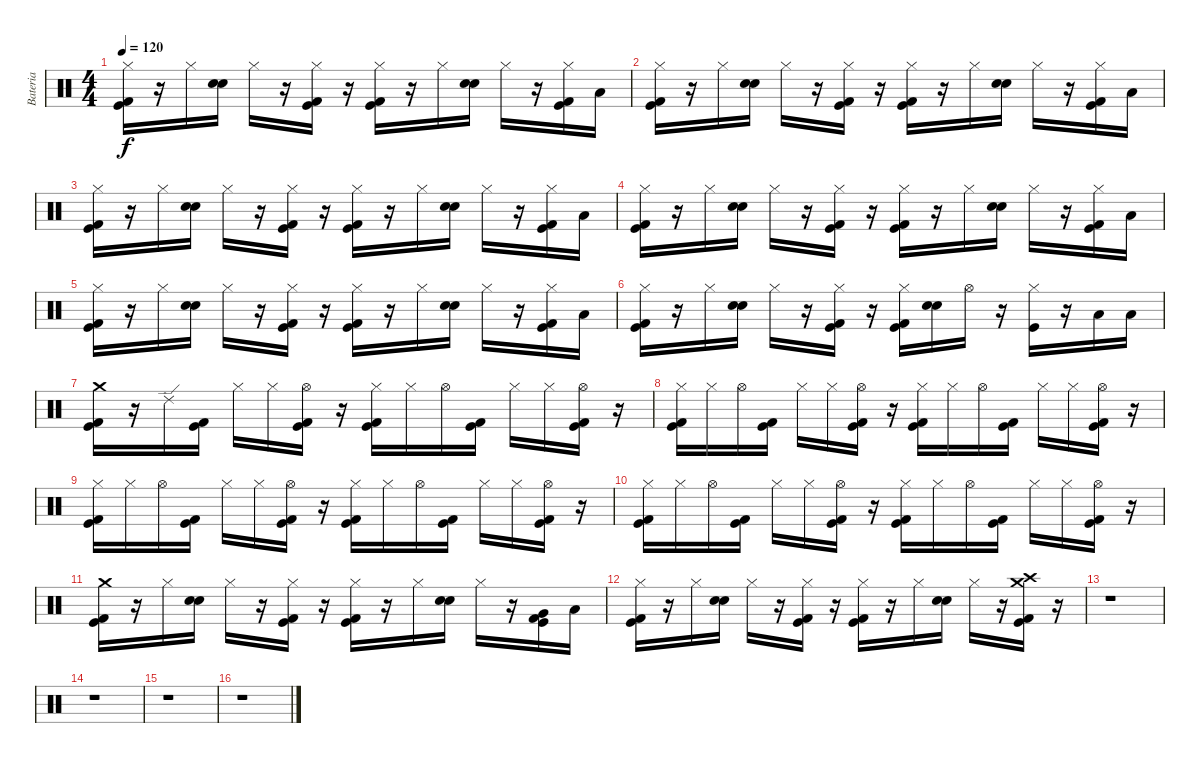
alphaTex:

\track ("Bateria" "Bateria") {instrument percussion}
\staff {score}
\articulation defaults
\ts (4 4)
\tempo 120
\clef neutral
\ks c
("Hi-Hat (closed)" "Kick (hit) 2" "Kick (hit)").16{dy f} r.16 "Hi-Hat (closed)".16 ("Electric Snare (hit)" "Snare (hit) 2").16 "Hi-Hat (closed)".16 r.16 ("Kick (hit) 2" "Kick (hit)" "Hi-Hat (closed)").16 r.16 ("Kick (hit) 2" "Kick (hit)" "Hi-Hat (closed)").16 r.16 "Hi-Hat (closed)".16 ("Electric Snare (hit)" "Snare (hit) 2").16 "Hi-Hat (closed)".16 r.16 ("Kick (hit) 2" "Kick (hit)" "Hi-Hat (closed)").16 "Low Floor Tom (hit)".16 |
("Hi-Hat (closed)" "Kick (hit) 2" "Kick (hit)").16 r.16 "Hi-Hat (closed)".16 ("Electric Snare (hit)" "Snare (hit) 2").16 "Hi-Hat (closed)".16 r.16 ("Kick (hit) 2" "Kick (hit)" "Hi-Hat (closed)").16 r.16 ("Kick (hit) 2" "Kick (hit)" "Hi-Hat (closed)").16 r.16 "Hi-Hat (closed)".16 ("Electric Snare (hit)" "Snare (hit) 2").16 "Hi-Hat (closed)".16 r.16 ("Kick (hit) 2" "Kick (hit)" "Hi-Hat (closed)").16 "Low Floor Tom (hit)".16 |
("Hi-Hat (closed)" "Kick (hit) 2" "Kick (hit)").16 r.16 "Hi-Hat (closed)".16 ("Electric Snare (hit)" "Snare (hit) 2").16 "Hi-Hat (closed)".16 r.16 ("Kick (hit) 2" "Kick (hit)" "Hi-Hat (closed)").16 r.16 ("Kick (hit) 2" "Kick (hit)" "Hi-Hat (closed)").16 r.16 "Hi-Hat (closed)".16 ("Electric Snare (hit)" "Snare (hit) 2").16 "Hi-Hat (closed)".16 r.16 ("Kick (hit) 2" "Kick (hit)" "Hi-Hat (closed)").16 "Low Floor Tom (hit)".16 |
("Hi-Hat (closed)" "Kick (hit) 2" "Kick (hit)").16 r.16 "Hi-Hat (closed)".16 ("Electric Snare (hit)" "Snare (hit) 2").16 "Hi-Hat (closed)".16 r.16 ("Kick (hit) 2" "Kick (hit)" "Hi-Hat (closed)").16 r.16 ("Kick (hit) 2" "Kick (hit)" "Hi-Hat (closed)").16 r.16 "Hi-Hat (closed)".16 ("Electric Snare (hit)" "Snare (hit) 2").16 "Hi-Hat (closed)".16 r.16 ("Kick (hit) 2" "Kick (hit)" "Hi-Hat (closed)").16 "Low Floor Tom (hit)".16 |
("Hi-Hat (closed)" "Kick (hit) 2" "Kick (hit)").16 r.16 "Hi-Hat (closed)".16 ("Electric Snare (hit)" "Snare (hit) 2").16 "Hi-Hat (closed)".16 r.16 ("Kick (hit) 2" "Kick (hit)" "Hi-Hat (closed)").16 r.16 ("Kick (hit) 2" "Kick (hit)" "Hi-Hat (closed)").16 r.16 "Hi-Hat (closed)".16 ("Electric Snare (hit)" "Snare (hit) 2").16 "Hi-Hat (closed)".16 r.16 ("Kick (hit) 2" "Kick (hit)" "Hi-Hat (closed)").16 "Low Floor Tom (hit)".16 |
("Hi-Hat (closed)" "Kick (hit) 2" "Kick (hit)").16 r.16 "Hi-Hat (closed)".16 ("Electric Snare (hit)" "Snare (hit) 2").16 "Hi-Hat (closed)".16 r.16 ("Kick (hit) 2" "Kick (hit)" "Hi-Hat (closed)").16 r.16 ("Kick (hit) 2" "Kick (hit)" "Hi-Hat (closed)").16 ("Electric Snare (hit)" "Snare (hit) 2").16 "Hi-Hat (open)".16 r.16 ("Kick (hit)" "Hi-Hat (closed)").16 r.16 "Low Floor Tom (hit)".16 "Low Floor Tom (hit)".16 |
("Crash medium (hit)" "Kick (hit) 2" "Kick (hit)").16 r.16 "Ride (edge) 2".16 ("Kick (hit) 2" "Kick (hit)").16 "Hi-Hat (closed)".16 "Hi-Hat (closed)".16 ("Kick (hit) 2" "Kick (hit)" "Hi-Hat (open)").16 r.16 ("Kick (hit) 2" "Kick (hit)" "Hi-Hat (closed)").16 "Hi-Hat (closed)".16 "Hi-Hat (open)".16 ("Kick (hit) 2" "Kick (hit)").16 "Hi-Hat (closed)".16 "Hi-Hat (closed)".16 ("Kick (hit) 2" "Kick (hit)" "Hi-Hat (open)").16 r.16 |
("Kick (hit) 2" "Kick (hit)" "Hi-Hat (closed)").16 "Hi-Hat (closed)".16 "Hi-Hat (open)".16 ("Kick (hit) 2" "Kick (hit)").16 "Hi-Hat (closed)".16 "Hi-Hat (closed)".16 ("Kick (hit) 2" "Kick (hit)" "Hi-Hat (open)").16 r.16 ("Kick (hit) 2" "Kick (hit)" "Hi-Hat (closed)").16 "Hi-Hat (closed)".16 "Hi-Hat (open)".16 ("Kick (hit) 2" "Kick (hit)").16 "Hi-Hat (closed)".16 "Hi-Hat (closed)".16 ("Kick (hit) 2" "Kick (hit)" "Hi-Hat (open)").16 r.16 |
("Kick (hit) 2" "Kick (hit)" "Hi-Hat (closed)").16 "Hi-Hat (closed)".16 "Hi-Hat (open)".16 ("Kick (hit) 2" "Kick (hit)").16 "Hi-Hat (closed)".16 "Hi-Hat (closed)".16 ("Kick (hit) 2" "Kick (hit)" "Hi-Hat (open)").16 r.16 ("Kick (hit) 2" "Kick (hit)" "Hi-Hat (closed)").16 "Hi-Hat (closed)".16 "Hi-Hat (open)".16 ("Kick (hit) 2" "Kick (hit)").16 "Hi-Hat (closed)".16 "Hi-Hat (closed)".16 ("Kick (hit) 2" "Kick (hit)" "Hi-Hat (open)").16 r.16 |
("Kick (hit) 2" "Kick (hit)" "Hi-Hat (closed)").16 "Hi-Hat (closed)".16 "Hi-Hat (open)".16 ("Kick (hit) 2" "Kick (hit)").16 "Hi-Hat (closed)".16 "Hi-Hat (closed)".16 ("Kick (hit) 2" "Kick (hit)" "Hi-Hat (open)").16 r.16 ("Kick (hit) 2" "Kick (hit)" "Hi-Hat (closed)").16 "Hi-Hat (closed)".16 "Hi-Hat (open)".16 ("Kick (hit) 2" "Kick (hit)").16 "Hi-Hat (closed)".16 "Hi-Hat (closed)".16 ("Kick (hit) 2" "Kick (hit)" "Hi-Hat (open)").16 r.16 |
("Crash medium (hit)" "Kick (hit) 2" "Kick (hit)").16 r.16 "Hi-Hat (closed)".16 ("Electric Snare (hit)" "Snare (hit) 2").16 "Hi-Hat (closed)".16 r.16 ("Kick (hit) 2" "Kick (hit)" "Hi-Hat (closed)").16 r.16 ("Kick (hit) 2" "Kick (hit)" "Hi-Hat (closed)").16 r.16 "Hi-Hat (closed)".16 ("Electric Snare (hit)" "Snare (hit) 2").16 "Hi-Hat (closed)".16 r.16 ("Very Low Tom (hit)" "Kick (hit) 2" "Kick (hit)").16 "Low Floor Tom (hit)".16 |
("Kick (hit) 2" "Kick (hit)" "Hi-Hat (closed)").16 r.16 "Hi-Hat (closed)".16 ("Electric Snare (hit)" "Snare (hit) 2").16 "Hi-Hat (closed)".16 r.16 ("Kick (hit) 2" "Kick (hit)" "Hi-Hat (closed)").16 r.16 ("Kick (hit) 2" "Kick (hit)" "Hi-Hat (closed)").16 r.16 "Hi-Hat (closed)".16 ("Electric Snare (hit)" "Snare (hit) 2").16 "Hi-Hat (closed)".16 r.16 ("Crash high (hit)" "Crash medium (hit)" "Kick (hit) 2" "Kick (hit)").16 r.16 |
r.1 |
r.1 |
r.1 |
r.1
